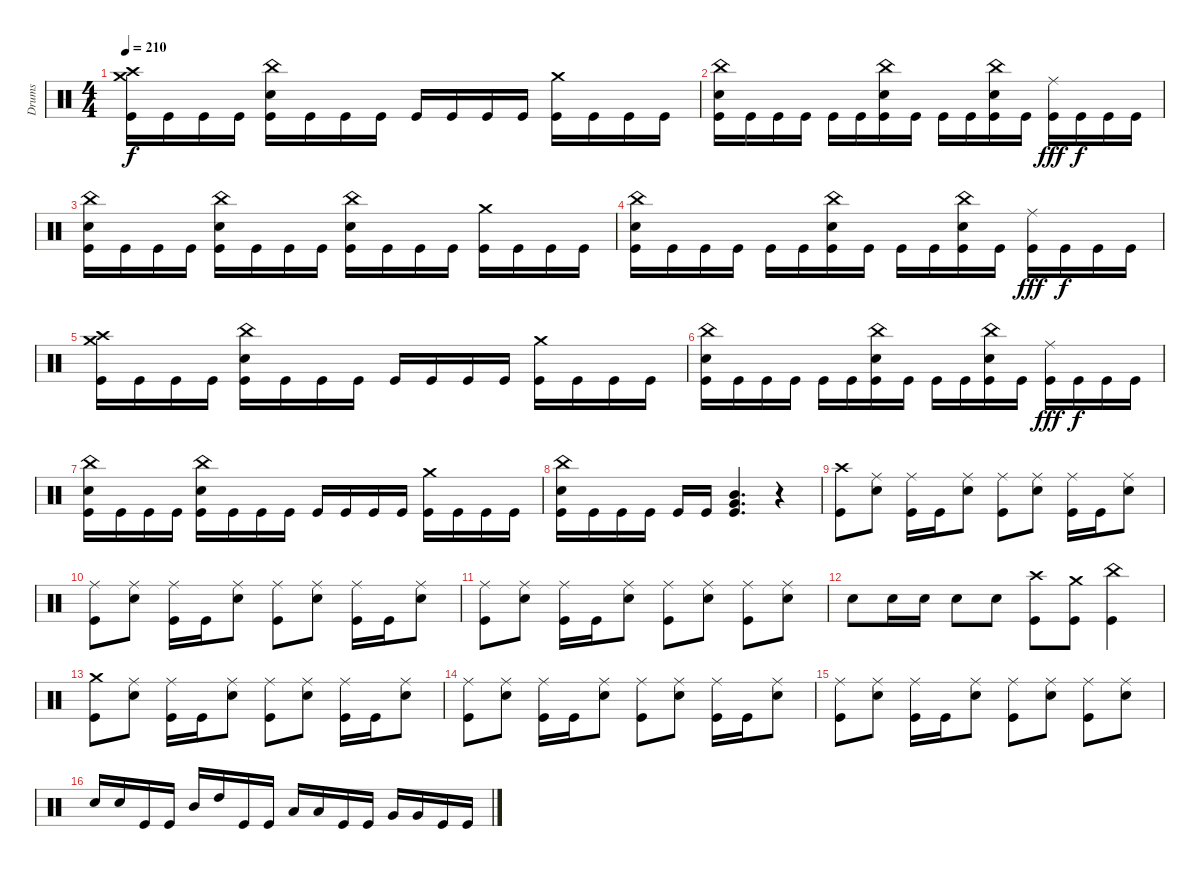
\track ("Drums" "Drums") {instrument percussion}
\staff {score}
\articulation defaults
\ts (4 4)
\tempo 210
\clef neutral
\ks c
("Kick (hit)" "Crash high (hit)" "Crash medium (hit)").16{dy f} "Kick (hit)".16 "Kick (hit)".16 "Kick (hit)".16 ("Kick (hit)" "Electric Snare (hit)" "China (hit)").16 "Kick (hit)".16 "Kick (hit)".16 "Kick (hit)".16 "Kick (hit)".16 "Kick (hit)".16 "Kick (hit)".16 "Kick (hit)".16 ("Kick (hit)" "Crash medium (hit)").16 "Kick (hit)".16 "Kick (hit)".16 "Kick (hit)".16 |
("Kick (hit)" "Electric Snare (hit)" "China (hit)").16 "Kick (hit)".16 "Kick (hit)".16 "Kick (hit)".16 "Kick (hit)".16 "Kick (hit)".16 ("Kick (hit)" "Electric Snare (hit)" "China (hit)").16 "Kick (hit)".16 "Kick (hit)".16 "Kick (hit)".16 ("Kick (hit)" "Electric Snare (hit)" "China (hit)").16 "Kick (hit)".16 ("Kick (hit)" "Ride (middle)").16{dy fff} "Kick (hit)".16{dy f} "Kick (hit)".16 "Kick (hit)".16 |
("Kick (hit)" "Electric Snare (hit)" "China (hit)").16 "Kick (hit)".16 "Kick (hit)".16 "Kick (hit)".16 ("Kick (hit)" "Electric Snare (hit)" "China (hit)").16 "Kick (hit)".16 "Kick (hit)".16 "Kick (hit)".16 ("Kick (hit)" "Electric Snare (hit)" "China (hit)").16 "Kick (hit)".16 "Kick (hit)".16 "Kick (hit)".16 ("Kick (hit)" "Crash medium (hit)").16 "Kick (hit)".16 "Kick (hit)".16 "Kick (hit)".16 |
("Kick (hit)" "Electric Snare (hit)" "China (hit)").16 "Kick (hit)".16 "Kick (hit)".16 "Kick (hit)".16 "Kick (hit)".16 "Kick (hit)".16 ("Kick (hit)" "Electric Snare (hit)" "China (hit)").16 "Kick (hit)".16 "Kick (hit)".16 "Kick (hit)".16 ("Kick (hit)" "Electric Snare (hit)" "China (hit)").16 "Kick (hit)".16 ("Kick (hit)" "Ride (middle)").16{dy fff} "Kick (hit)".16{dy f} "Kick (hit)".16 "Kick (hit)".16 |
("Kick (hit)" "Crash high (hit)" "Crash medium (hit)").16 "Kick (hit)".16 "Kick (hit)".16 "Kick (hit)".16 ("Kick (hit)" "Electric Snare (hit)" "China (hit)").16 "Kick (hit)".16 "Kick (hit)".16 "Kick (hit)".16 "Kick (hit)".16 "Kick (hit)".16 "Kick (hit)".16 "Kick (hit)".16 ("Kick (hit)" "Crash medium (hit)").16 "Kick (hit)".16 "Kick (hit)".16 "Kick (hit)".16 |
("Kick (hit)" "Electric Snare (hit)" "China (hit)").16 "Kick (hit)".16 "Kick (hit)".16 "Kick (hit)".16 "Kick (hit)".16 "Kick (hit)".16 ("Kick (hit)" "Electric Snare (hit)" "China (hit)").16 "Kick (hit)".16 "Kick (hit)".16 "Kick (hit)".16 ("Kick (hit)" "Electric Snare (hit)" "China (hit)").16 "Kick (hit)".16 ("Kick (hit)" "Ride (middle)").16{dy fff} "Kick (hit)".16{dy f} "Kick (hit)".16 "Kick (hit)".16 |
("Kick (hit)" "Electric Snare (hit)" "China (hit)").16 "Kick (hit)".16 "Kick (hit)".16 "Kick (hit)".16 ("Kick (hit)" "Electric Snare (hit)" "China (hit)").16 "Kick (hit)".16 "Kick (hit)".16 "Kick (hit)".16 "Kick (hit)".16 "Kick (hit)".16 "Kick (hit)".16 "Kick (hit)".16 ("Kick (hit)" "Crash medium (hit)").16 "Kick (hit)".16 "Kick (hit)".16 "Kick (hit)".16 |
("Kick (hit)" "Electric Snare (hit)" "China (hit)").16 "Kick (hit)".16 "Kick (hit)".16 "Kick (hit)".16 "Kick (hit)".16 "Kick (hit)".16 ("Kick (hit)" "Very Low Tom (hit)" "Mid Tom (hit)").4{d} r.4 |
("Kick (hit)" "Crash high (hit)").8 ("Electric Snare (hit)" "Ride (middle)").8 ("Kick (hit)" "Ride (middle)").16 "Kick (hit)".16 ("Electric Snare (hit)" "Ride (middle)").8 ("Kick (hit)" "Ride (middle)").8 ("Electric Snare (hit)" "Ride (middle)").8 ("Kick (hit)" "Ride (middle)").16 "Kick (hit)".16 ("Electric Snare (hit)" "Ride (middle)").8 |
("Kick (hit)" "Ride (middle)").8 ("Electric Snare (hit)" "Ride (middle)").8 ("Kick (hit)" "Ride (middle)").16 "Kick (hit)".16 ("Electric Snare (hit)" "Ride (middle)").8 ("Kick (hit)" "Ride (middle)").8 ("Electric Snare (hit)" "Ride (middle)").8 ("Kick (hit)" "Ride (middle)").16 "Kick (hit)".16 ("Electric Snare (hit)" "Ride (middle)").8 |
("Kick (hit)" "Ride (middle)").8 ("Electric Snare (hit)" "Ride (middle)").8 ("Kick (hit)" "Ride (middle)").16 "Kick (hit)".16 ("Electric Snare (hit)" "Ride (middle)").8 ("Kick (hit)" "Ride (middle)").8 ("Electric Snare (hit)" "Ride (middle)").8 ("Kick (hit)" "Ride (middle)").8 ("Electric Snare (hit)" "Ride (middle)").8 |
"Electric Snare (hit)".8 "Electric Snare (hit)".16 "Electric Snare (hit)".16 "Electric Snare (hit)".8 "Electric Snare (hit)".8 ("Kick (hit)" "Crash high (hit)").8 ("Kick (hit)" "Crash medium (hit)").8 ("Kick (hit)" "China (hit)").4 |
("Kick (hit)" "Crash medium (hit)").8 ("Electric Snare (hit)" "Ride (middle)").8 ("Kick (hit)" "Ride (middle)").16 "Kick (hit)".16 ("Electric Snare (hit)" "Ride (middle)").8 ("Kick (hit)" "Ride (middle)").8 ("Electric Snare (hit)" "Ride (middle)").8 ("Kick (hit)" "Ride (middle)").16 "Kick (hit)".16 ("Electric Snare (hit)" "Ride (middle)").8 |
("Kick (hit)" "Ride (middle)").8 ("Electric Snare (hit)" "Ride (middle)").8 ("Kick (hit)" "Ride (middle)").16 "Kick (hit)".16 ("Electric Snare (hit)" "Ride (middle)").8 ("Kick (hit)" "Ride (middle)").8 ("Electric Snare (hit)" "Ride (middle)").8 ("Kick (hit)" "Ride (middle)").16 "Kick (hit)".16 ("Electric Snare (hit)" "Ride (middle)").8 |
("Kick (hit)" "Ride (middle)").8 ("Electric Snare (hit)" "Ride (middle)").8 ("Kick (hit)" "Ride (middle)").16 "Kick (hit)".16 ("Electric Snare (hit)" "Ride (middle)").8 ("Kick (hit)" "Ride (middle)").8 ("Electric Snare (hit)" "Ride (middle)").8 ("Kick (hit)" "Ride (middle)").8 ("Electric Snare (hit)" "Ride (middle)").8 |
"Electric Snare (hit)".16 "Electric Snare (hit)".16 "Kick (hit)".16 "Kick (hit)".16 "Mid Tom (hit)".16 "High Tom (hit)".16 "Kick (hit)".16 "Kick (hit)".16 "Low Tom (hit)".16 "Low Tom (hit)".16 "Kick (hit)".16 "Kick (hit)".16 "Very Low Tom (hit)".16 "Very Low Tom (hit)".16 "Kick (hit)".16 "Kick (hit)".16
